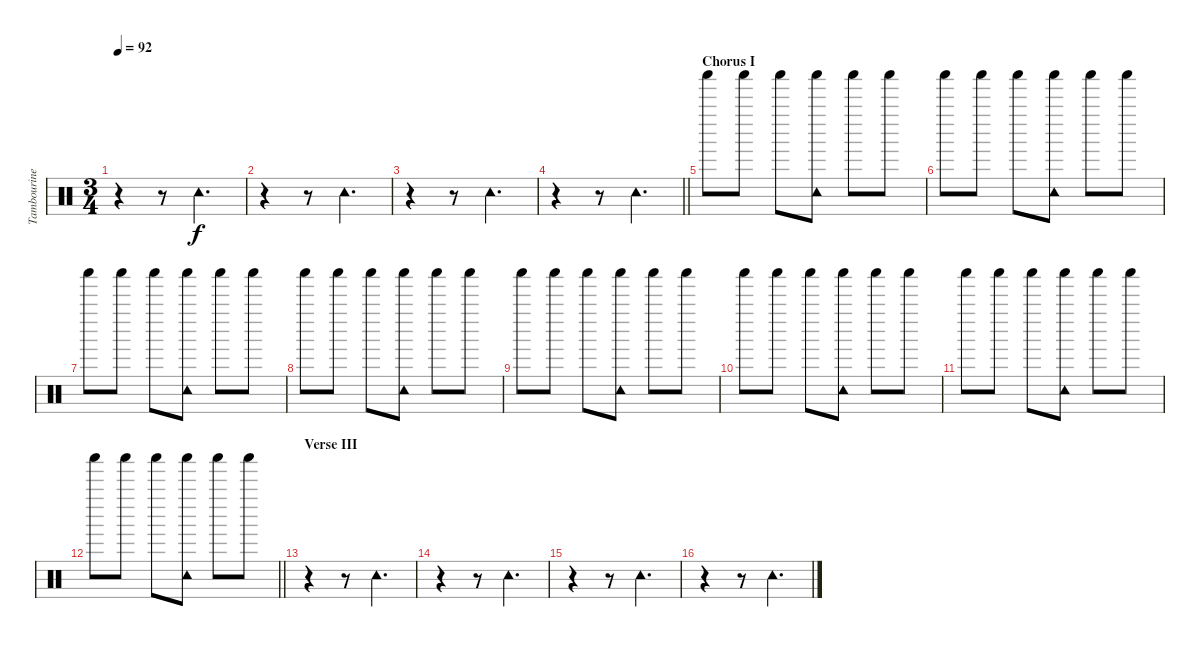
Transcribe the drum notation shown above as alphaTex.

\track ("Tambourine" "Tambourine") {instrument percussion}
\staff {score}
\articulation defaults
\ts (3 4)
\tempo 92
\clef neutral
\ks c
r.4{dy f} r.8 "Tambourine (hit)".4{d} |
r.4 r.8 "Tambourine (hit)".4{d} |
r.4 r.8 "Tambourine (hit)".4{d} |
\barLineRight lightlight
r.4 r.8 "Tambourine (hit)".4{d} |
\section ("" "Chorus I")
"Shaker (hit)".8 "Shaker (hit)".8 "Shaker (hit)".8 ("Tambourine (hit)" "Shaker (hit)").8 "Shaker (hit)".8 "Shaker (hit)".8 |
"Shaker (hit)".8 "Shaker (hit)".8 "Shaker (hit)".8 ("Tambourine (hit)" "Shaker (hit)").8 "Shaker (hit)".8 "Shaker (hit)".8 |
"Shaker (hit)".8 "Shaker (hit)".8 "Shaker (hit)".8 ("Tambourine (hit)" "Shaker (hit)").8 "Shaker (hit)".8 "Shaker (hit)".8 |
"Shaker (hit)".8 "Shaker (hit)".8 "Shaker (hit)".8 ("Tambourine (hit)" "Shaker (hit)").8 "Shaker (hit)".8 "Shaker (hit)".8 |
"Shaker (hit)".8 "Shaker (hit)".8 "Shaker (hit)".8 ("Tambourine (hit)" "Shaker (hit)").8 "Shaker (hit)".8 "Shaker (hit)".8 |
"Shaker (hit)".8 "Shaker (hit)".8 "Shaker (hit)".8 ("Tambourine (hit)" "Shaker (hit)").8 "Shaker (hit)".8 "Shaker (hit)".8 |
"Shaker (hit)".8 "Shaker (hit)".8 "Shaker (hit)".8 ("Tambourine (hit)" "Shaker (hit)").8 "Shaker (hit)".8 "Shaker (hit)".8 |
\barLineRight lightlight "Shaker (hit)".8 "Shaker (hit)".8 "Shaker (hit)".8
("Tambourine (hit)" "Shaker (hit)").8 "Shaker (hit)".8 "Shaker (hit)".8 |
\section ("" "Verse III")
r.4 r.8 "Tambourine (hit)".4{d} |
r.4 r.8 "Tambourine (hit)".4{d} |
r.4 r.8 "Tambourine (hit)".4{d} |
r.4 r.8 "Tambourine (hit)".4{d}
